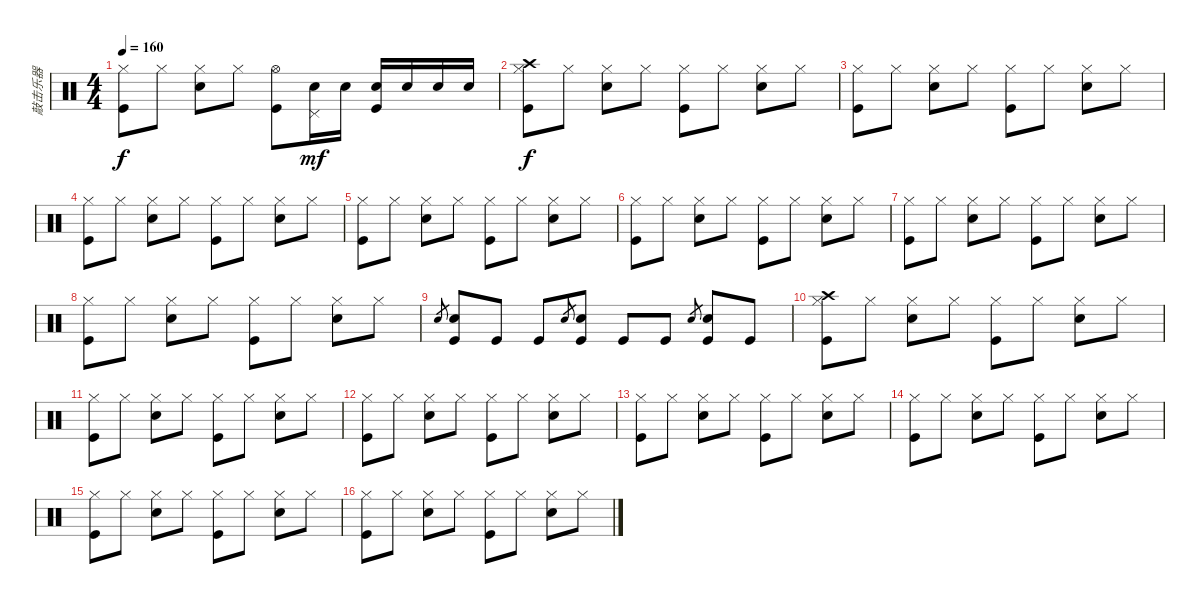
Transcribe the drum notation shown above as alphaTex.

\track ("敲击乐器" "敲击乐器") {instrument percussion}
\staff {score}
\articulation defaults
\ts (4 4)
\tempo 160
\clef neutral
\ks c
("Hi-Hat (closed)" "Kick (hit)").8{dy f} "Hi-Hat (closed)".8 ("Snare (hit) 2" "Hi-Hat (closed)").8 "Hi-Hat (closed)".8 ("Hi-Hat (open)" "Kick (hit)").8 ("Snare (hit) 2" "Pedal Hi-Hat (hit)").16{dy mf} "Snare (hit) 2".16 ("Snare (hit) 2" "Kick (hit)").16 "Snare (hit) 2".16 "Snare (hit) 2".16 "Snare (hit) 2".16 |
("Crash high (hit)" "Hi-Hat (closed)" "Kick (hit)").8{dy f} "Hi-Hat (closed)".8 ("Snare (hit) 2" "Hi-Hat (closed)").8 "Hi-Hat (closed)".8 ("Hi-Hat (closed)" "Kick (hit)").8 "Hi-Hat (closed)".8 ("Snare (hit) 2" "Hi-Hat (closed)").8 "Hi-Hat (closed)".8 |
("Hi-Hat (closed)" "Kick (hit)").8 "Hi-Hat (closed)".8 ("Snare (hit) 2" "Hi-Hat (closed)").8 "Hi-Hat (closed)".8 ("Hi-Hat (closed)" "Kick (hit)").8 "Hi-Hat (closed)".8 ("Snare (hit) 2" "Hi-Hat (closed)").8 "Hi-Hat (closed)".8 |
("Hi-Hat (closed)" "Kick (hit)").8 "Hi-Hat (closed)".8 ("Snare (hit) 2" "Hi-Hat (closed)").8 "Hi-Hat (closed)".8 ("Hi-Hat (closed)" "Kick (hit)").8 "Hi-Hat (closed)".8 ("Snare (hit) 2" "Hi-Hat (closed)").8 "Hi-Hat (closed)".8 |
("Hi-Hat (closed)" "Kick (hit)").8 "Hi-Hat (closed)".8 ("Snare (hit) 2" "Hi-Hat (closed)").8 "Hi-Hat (closed)".8 ("Hi-Hat (closed)" "Kick (hit)").8 "Hi-Hat (closed)".8 ("Snare (hit) 2" "Hi-Hat (closed)").8 "Hi-Hat (closed)".8 |
("Hi-Hat (closed)" "Kick (hit)").8 "Hi-Hat (closed)".8 ("Snare (hit) 2" "Hi-Hat (closed)").8 "Hi-Hat (closed)".8 ("Hi-Hat (closed)" "Kick (hit)").8 "Hi-Hat (closed)".8 ("Snare (hit) 2" "Hi-Hat (closed)").8 "Hi-Hat (closed)".8 |
("Hi-Hat (closed)" "Kick (hit)").8 "Hi-Hat (closed)".8 ("Snare (hit) 2" "Hi-Hat (closed)").8 "Hi-Hat (closed)".8 ("Hi-Hat (closed)" "Kick (hit)").8 "Hi-Hat (closed)".8 ("Snare (hit) 2" "Hi-Hat (closed)").8 "Hi-Hat (closed)".8 |
("Hi-Hat (closed)" "Kick (hit)").8 "Hi-Hat (closed)".8 ("Snare (hit) 2" "Hi-Hat (closed)").8 "Hi-Hat (closed)".8 ("Hi-Hat (closed)" "Kick (hit)").8 "Hi-Hat (closed)".8 ("Snare (hit) 2" "Hi-Hat (closed)").8 "Hi-Hat (closed)".8 |
"Snare (hit) 2".8{gr} ("Snare (hit) 2" "Kick (hit)").8 "Kick (hit)".8 "Kick (hit)".8 "Snare (hit) 2".8{gr} ("Snare (hit) 2" "Kick (hit)").8 "Kick (hit)".8 "Kick (hit)".8 "Snare (hit) 2".8{gr} ("Snare (hit) 2" "Kick (hit)").8 "Kick (hit)".8 |
("Crash high (hit)" "Hi-Hat (closed)" "Kick (hit)").8 "Hi-Hat (closed)".8 ("Snare (hit) 2" "Hi-Hat (closed)").8 "Hi-Hat (closed)".8 ("Hi-Hat (closed)" "Kick (hit)").8 "Hi-Hat (closed)".8 ("Snare (hit) 2" "Hi-Hat (closed)").8 "Hi-Hat (closed)".8 |
("Hi-Hat (closed)" "Kick (hit)").8 "Hi-Hat (closed)".8 ("Snare (hit) 2" "Hi-Hat (closed)").8 "Hi-Hat (closed)".8 ("Hi-Hat (closed)" "Kick (hit)").8 "Hi-Hat (closed)".8 ("Snare (hit) 2" "Hi-Hat (closed)").8 "Hi-Hat (closed)".8 |
("Hi-Hat (closed)" "Kick (hit)").8 "Hi-Hat (closed)".8 ("Snare (hit) 2" "Hi-Hat (closed)").8 "Hi-Hat (closed)".8 ("Hi-Hat (closed)" "Kick (hit)").8 "Hi-Hat (closed)".8 ("Snare (hit) 2" "Hi-Hat (closed)").8 "Hi-Hat (closed)".8 |
("Hi-Hat (closed)" "Kick (hit)").8 "Hi-Hat (closed)".8 ("Snare (hit) 2" "Hi-Hat (closed)").8 "Hi-Hat (closed)".8 ("Hi-Hat (closed)" "Kick (hit)").8 "Hi-Hat (closed)".8 ("Snare (hit) 2" "Hi-Hat (closed)").8 "Hi-Hat (closed)".8 |
("Hi-Hat (closed)" "Kick (hit)").8 "Hi-Hat (closed)".8 ("Snare (hit) 2" "Hi-Hat (closed)").8 "Hi-Hat (closed)".8 ("Hi-Hat (closed)" "Kick (hit)").8 "Hi-Hat (closed)".8 ("Snare (hit) 2" "Hi-Hat (closed)").8 "Hi-Hat (closed)".8 |
("Hi-Hat (closed)" "Kick (hit)").8 "Hi-Hat (closed)".8 ("Snare (hit) 2" "Hi-Hat (closed)").8 "Hi-Hat (closed)".8 ("Hi-Hat (closed)" "Kick (hit)").8 "Hi-Hat (closed)".8 ("Snare (hit) 2" "Hi-Hat (closed)").8 "Hi-Hat (closed)".8 |
("Hi-Hat (closed)" "Kick (hit)").8 "Hi-Hat (closed)".8 ("Snare (hit) 2" "Hi-Hat (closed)").8 "Hi-Hat (closed)".8 ("Hi-Hat (closed)" "Kick (hit)").8 "Hi-Hat (closed)".8 ("Snare (hit) 2" "Hi-Hat (closed)").8 "Hi-Hat (closed)".8
